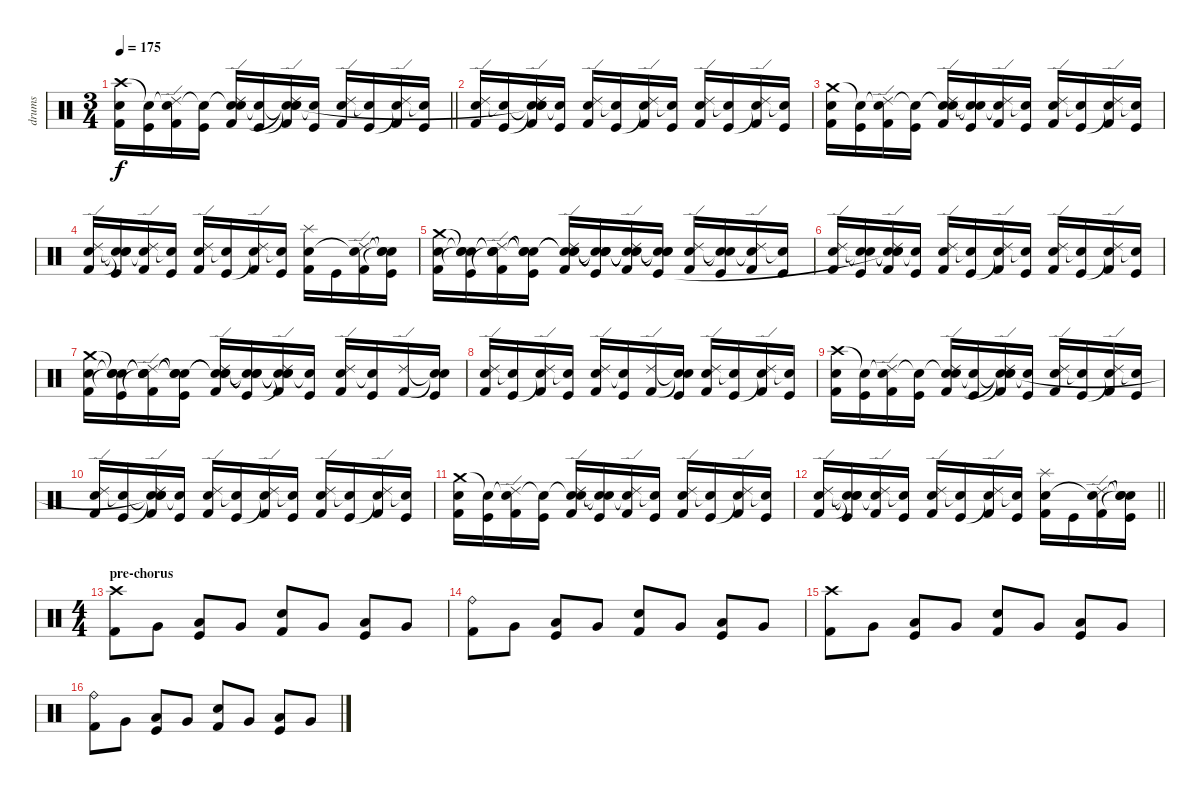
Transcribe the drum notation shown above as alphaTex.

\track ("drums" "drums") {instrument percussion}
\staff {score}
\articulation defaults
\ts (3 4)
\tempo 175
\clef neutral
\barLineRight lightlight
\ks c
("Crash high (hit)" "Snare (hit) 2" "Kick (hit) 2").16{dy f} ("Snare (hit)"{t} "Kick (hit)").16 ("Snare (hit)"{t} "Ride (edge) 2" "Kick (hit) 2").16 ("Snare (hit)"{t} "Kick (hit)").16 ("Snare (hit)"{t} "Ride (edge) 2" "Snare (hit) 2" "Kick (hit) 2").16 ("Snare (hit)"{t} "Kick (hit)").16 ("Snare (hit)"{t} "Snare (hit)"{t} "Ride (edge) 2" "Snare (hit)"{t} "Kick (hit) 2").16 ("Snare (hit)"{t} "Kick (hit)").16 ("Ride (edge) 2" "Snare (hit) 2" "Kick (hit) 2").16 ("Snare (hit)"{t} "Kick (hit)").16 ("Ride (edge) 2" "Snare (hit)"{t} "Kick (hit) 2").16 ("Snare (hit)"{t} "Kick (hit)").16 |
("Ride (edge) 2" "Snare (hit) 2" "Kick (hit) 2").16 ("Snare (hit)"{t} "Kick (hit)").16 ("Snare (hit)"{t} "Snare (hit)"{t} "Ride (edge) 2" "Snare (hit)"{t} "Kick (hit) 2").16 ("Snare (hit)"{t} "Kick (hit)").16 ("Ride (edge) 2" "Snare (hit) 2" "Kick (hit) 2").16 ("Snare (hit)"{t} "Kick (hit)").16 ("Ride (edge) 2" "Snare (hit)"{t} "Kick (hit) 2").16 ("Snare (hit)"{t} "Kick (hit)").16 ("Ride (edge) 2" "Snare (hit) 2" "Kick (hit) 2").16 ("Snare (hit)"{t} "Kick (hit)").16 ("Ride (edge) 2" "Snare (hit)"{t} "Kick (hit) 2").16 ("Snare (hit)"{t} "Kick (hit)").16 |
("Crash medium (hit)" "Snare (hit) 2" "Kick (hit) 2").16 ("Snare (hit)"{t} "Kick (hit)").16 ("Snare (hit)"{t} "Ride (edge) 2" "Kick (hit) 2").16 ("Snare (hit)"{t} "Kick (hit)").16 ("Snare (hit)"{t} "Ride (edge) 2" "Snare (hit) 2" "Kick (hit) 2").16 ("Snare (hit)"{t} "Snare (hit)"{t} "Kick (hit)").16 ("Ride (edge) 2" "Snare (hit)"{t} "Kick (hit) 2").16 ("Snare (hit)"{t} "Kick (hit)").16 ("Ride (edge) 2" "Snare (hit) 2" "Kick (hit) 2").16 ("Snare (hit)"{t} "Kick (hit)").16 ("Ride (edge) 2" "Snare (hit)"{t} "Kick (hit) 2").16 ("Snare (hit)"{t} "Kick (hit)").16 |
("Ride (edge) 2" "Snare (hit) 2" "Kick (hit) 2").16 ("Snare (hit)"{t} "Snare (hit)"{t} "Snare (hit)"{t} "Kick (hit)").16 ("Ride (edge) 2" "Snare (hit)"{t} "Kick (hit) 2").16 ("Snare (hit)"{t} "Kick (hit)").16 ("Ride (edge) 2" "Snare (hit) 2" "Kick (hit) 2").16 ("Snare (hit)"{t} "Kick (hit)").16 ("Ride (edge) 2" "Snare (hit)"{t} "Kick (hit) 2").16 ("Snare (hit)"{t} "Kick (hit)").16 ("Splash (hit)" "Snare (hit) 2" "Kick (hit) 2").16 "Kick (hit)".16 ("Ride (edge) 2" "Snare (hit)"{t} "Kick (hit) 2").16 ("Snare (hit)"{t} "Snare (hit)"{t} "Snare (hit)"{t} "Kick (hit)").16 |
("Crash medium (hit)" "Snare (hit) 2" "Kick (hit) 2").16 ("Snare (hit)"{t} "Snare (hit)"{t} "Snare (hit)"{t} "Kick (hit)").16 ("Snare (hit)"{t} "Snare (hit)"{t} "Ride (edge) 2" "Snare (hit)"{t} "Kick (hit) 2").16 ("Snare (hit)"{t} "Snare (hit)"{t} "Snare (hit)"{t} "Kick (hit)").16 ("Snare (hit)"{t} "Snare (hit)"{t} "Ride (edge) 2" "Snare (hit) 2" "Kick (hit) 2").16 ("Snare (hit)"{t} "Snare (hit)"{t} "Snare (hit)"{t} "Snare (hit)"{t} "Kick (hit)").16 ("Snare (hit)"{t} "Snare (hit)"{t} "Ride (edge) 2" "Snare (hit)"{t} "Kick (hit) 2").16 ("Snare (hit)"{t} "Snare (hit)"{t} "Snare (hit)"{t} "Kick (hit)").16 ("Ride (edge) 2" "Snare (hit) 2" "Kick (hit) 2").16 ("Snare (hit)"{t} "Snare (hit)"{t} "Kick (hit)").16 ("Ride (edge) 2" "Snare (hit)"{t} "Kick (hit) 2").16 ("Snare (hit)"{t} "Kick (hit)").16 |
("Ride (edge) 2" "Snare (hit) 2" "Kick (hit) 2").16 ("Snare (hit)"{t} "Snare (hit)"{t} "Kick (hit)").16 ("Snare (hit)"{t} "Snare (hit)"{t} "Ride (edge) 2" "Snare (hit)"{t} "Kick (hit) 2").16 ("Snare (hit)"{t} "Kick (hit)").16 ("Ride (edge) 2" "Snare (hit) 2" "Kick (hit) 2").16 ("Snare (hit)"{t} "Kick (hit)").16 ("Ride (edge) 2" "Snare (hit)"{t} "Kick (hit) 2").16 ("Snare (hit)"{t} "Kick (hit)").16 ("Ride (edge) 2" "Snare (hit) 2" "Kick (hit) 2").16 ("Snare (hit)"{t} "Kick (hit)").16 ("Ride (edge) 2" "Snare (hit)"{t} "Kick (hit) 2").16 ("Snare (hit)"{t} "Kick (hit)").16 |
("Crash medium (hit)" "Snare (hit) 2" "Kick (hit) 2").16 ("Snare (hit)"{t} "Snare (hit)"{t} "Snare (hit)"{t} "Kick (hit)").16 ("Snare (hit)"{t} "Snare (hit)"{t} "Ride (edge) 2" "Snare (hit)"{t} "Kick (hit) 2").16 ("Snare (hit)"{t} "Snare (hit)"{t} "Snare (hit)"{t} "Kick (hit)").16 ("Snare (hit)"{t} "Snare (hit)"{t} "Ride (edge) 2" "Snare (hit) 2" "Kick (hit) 2").16 ("Snare (hit)"{t} "Snare (hit)"{t} "Snare (hit)"{t} "Kick (hit)").16 ("Snare (hit)"{t} "Snare (hit)"{t} "Ride (edge) 2" "Snare (hit)"{t} "Kick (hit) 2").16 ("Snare (hit)"{t} "Kick (hit)").16 ("Snare (hit) 2" "Ride (edge) 2" "Kick (hit) 2").16 ("Snare (hit)"{t} "Kick (hit)").16 ("Ride (edge) 2" "Kick (hit) 2").16 ("Snare (hit)"{t} "Snare (hit)"{t} "Kick (hit)").16 |
("Ride (edge) 2" "Snare (hit) 2" "Kick (hit) 2").16 ("Snare (hit)"{t} "Kick (hit)").16 ("Ride (edge) 2" "Snare (hit)"{t} "Kick (hit) 2").16 ("Snare (hit)"{t} "Kick (hit)").16 ("Snare (hit) 2" "Ride (edge) 2" "Kick (hit) 2").16 ("Snare (hit)"{t} "Kick (hit)").16 ("Ride (edge) 2" "Kick (hit) 2").16 ("Snare (hit)"{t} "Snare (hit)"{t} "Kick (hit)").16 ("Ride (edge) 2" "Snare (hit) 2" "Kick (hit) 2").16 ("Snare (hit)"{t} "Kick (hit)").16 ("Ride (edge) 2" "Snare (hit)"{t} "Kick (hit) 2").16 ("Snare (hit)"{t} "Kick (hit)").16 |
("Crash high (hit)" "Snare (hit) 2" "Kick (hit) 2").16 ("Snare (hit)"{t} "Kick (hit)").16 ("Snare (hit)"{t} "Ride (edge) 2" "Kick (hit) 2").16 ("Snare (hit)"{t} "Kick (hit)").16 ("Snare (hit)"{t} "Ride (edge) 2" "Snare (hit) 2" "Kick (hit) 2").16 ("Snare (hit)"{t} "Kick (hit)").16 ("Snare (hit)"{t} "Snare (hit)"{t} "Ride (edge) 2" "Snare (hit)"{t} "Kick (hit) 2").16 ("Snare (hit)"{t} "Kick (hit)").16 ("Ride (edge) 2" "Snare (hit) 2" "Kick (hit) 2").16 ("Snare (hit)"{t} "Kick (hit)").16 ("Ride (edge) 2" "Snare (hit)"{t} "Kick (hit) 2").16 ("Snare (hit)"{t} "Kick (hit)").16 |
("Ride (edge) 2" "Snare (hit) 2" "Kick (hit) 2").16 ("Snare (hit)"{t} "Kick (hit)").16 ("Snare (hit)"{t} "Snare (hit)"{t} "Ride (edge) 2" "Snare (hit)"{t} "Kick (hit) 2").16 ("Snare (hit)"{t} "Kick (hit)").16 ("Ride (edge) 2" "Snare (hit) 2" "Kick (hit) 2").16 ("Snare (hit)"{t} "Kick (hit)").16 ("Ride (edge) 2" "Snare (hit)"{t} "Kick (hit) 2").16 ("Snare (hit)"{t} "Kick (hit)").16 ("Ride (edge) 2" "Snare (hit) 2" "Kick (hit) 2").16 ("Snare (hit)"{t} "Kick (hit)").16 ("Ride (edge) 2" "Snare (hit)"{t} "Kick (hit) 2").16 ("Snare (hit)"{t} "Kick (hit)").16 |
("Crash medium (hit)" "Snare (hit) 2" "Kick (hit) 2").16 ("Snare (hit)"{t} "Kick (hit)").16 ("Snare (hit)"{t} "Ride (edge) 2" "Kick (hit) 2").16 ("Snare (hit)"{t} "Kick (hit)").16 ("Snare (hit)"{t} "Ride (edge) 2" "Snare (hit) 2" "Kick (hit) 2").16 ("Snare (hit)"{t} "Snare (hit)"{t} "Kick (hit)").16 ("Ride (edge) 2" "Snare (hit)"{t} "Kick (hit) 2").16 ("Snare (hit)"{t} "Kick (hit)").16 ("Ride (edge) 2" "Snare (hit) 2" "Kick (hit) 2").16 ("Snare (hit)"{t} "Kick (hit)").16 ("Ride (edge) 2" "Snare (hit)"{t} "Kick (hit) 2").16 ("Snare (hit)"{t} "Kick (hit)").16 |
\barLineRight lightlight
("Ride (edge) 2" "Snare (hit) 2" "Kick (hit) 2").16 ("Snare (hit)"{t} "Snare (hit)"{t} "Snare (hit)"{t} "Kick (hit)").16 ("Ride (edge) 2" "Snare (hit)"{t} "Kick (hit) 2").16 ("Snare (hit)"{t} "Kick (hit)").16 ("Ride (edge) 2" "Snare (hit) 2" "Kick (hit) 2").16 ("Snare (hit)"{t} "Kick (hit)").16 ("Ride (edge) 2" "Snare (hit)"{t} "Kick (hit) 2").16 ("Snare (hit)"{t} "Kick (hit)").16 ("Splash (hit)" "Snare (hit) 2" "Kick (hit) 2").16 "Kick (hit)".16 ("Ride (edge) 2" "Snare (hit)"{t} "Kick (hit) 2").16 ("Snare (hit)"{t} "Snare (hit)"{t} "Snare (hit)"{t} "Kick (hit)").16 |
\ts (4 4)
\section ("" "pre-chorus")
("Kick (hit) 2" "Crash high (hit)").8 "Very Low Tom (hit)".8 ("Kick (hit)" "Low Tom (hit)").8 "Very Low Tom (hit)".8 ("Kick (hit) 2" "Snare (hit) 2").8 "Very Low Tom (hit)".8 ("Kick (hit)" "Low Tom (hit)").8 "Very Low Tom (hit)".8 |
("Kick (hit) 2" "Ride (bell)").8 "Very Low Tom (hit)".8 ("Kick (hit)" "Low Tom (hit)").8 "Very Low Tom (hit)".8 ("Kick (hit) 2" "Snare (hit) 2").8 "Very Low Tom (hit)".8 ("Kick (hit)" "Low Tom (hit)").8 "Very Low Tom (hit)".8 |
("Kick (hit) 2" "Crash high (hit)").8 "Very Low Tom (hit)".8 ("Kick (hit)" "Low Tom (hit)").8 "Very Low Tom (hit)".8 ("Kick (hit) 2" "Snare (hit) 2").8 "Very Low Tom (hit)".8 ("Kick (hit)" "Low Tom (hit)").8 "Very Low Tom (hit)".8 |
("Kick (hit) 2" "Ride (bell)").8 "Very Low Tom (hit)".8 ("Kick (hit)" "Low Tom (hit)").8 "Very Low Tom (hit)".8 ("Kick (hit) 2" "Snare (hit) 2").8 "Very Low Tom (hit)".8 ("Kick (hit)" "Low Tom (hit)").8 "Very Low Tom (hit)".8
